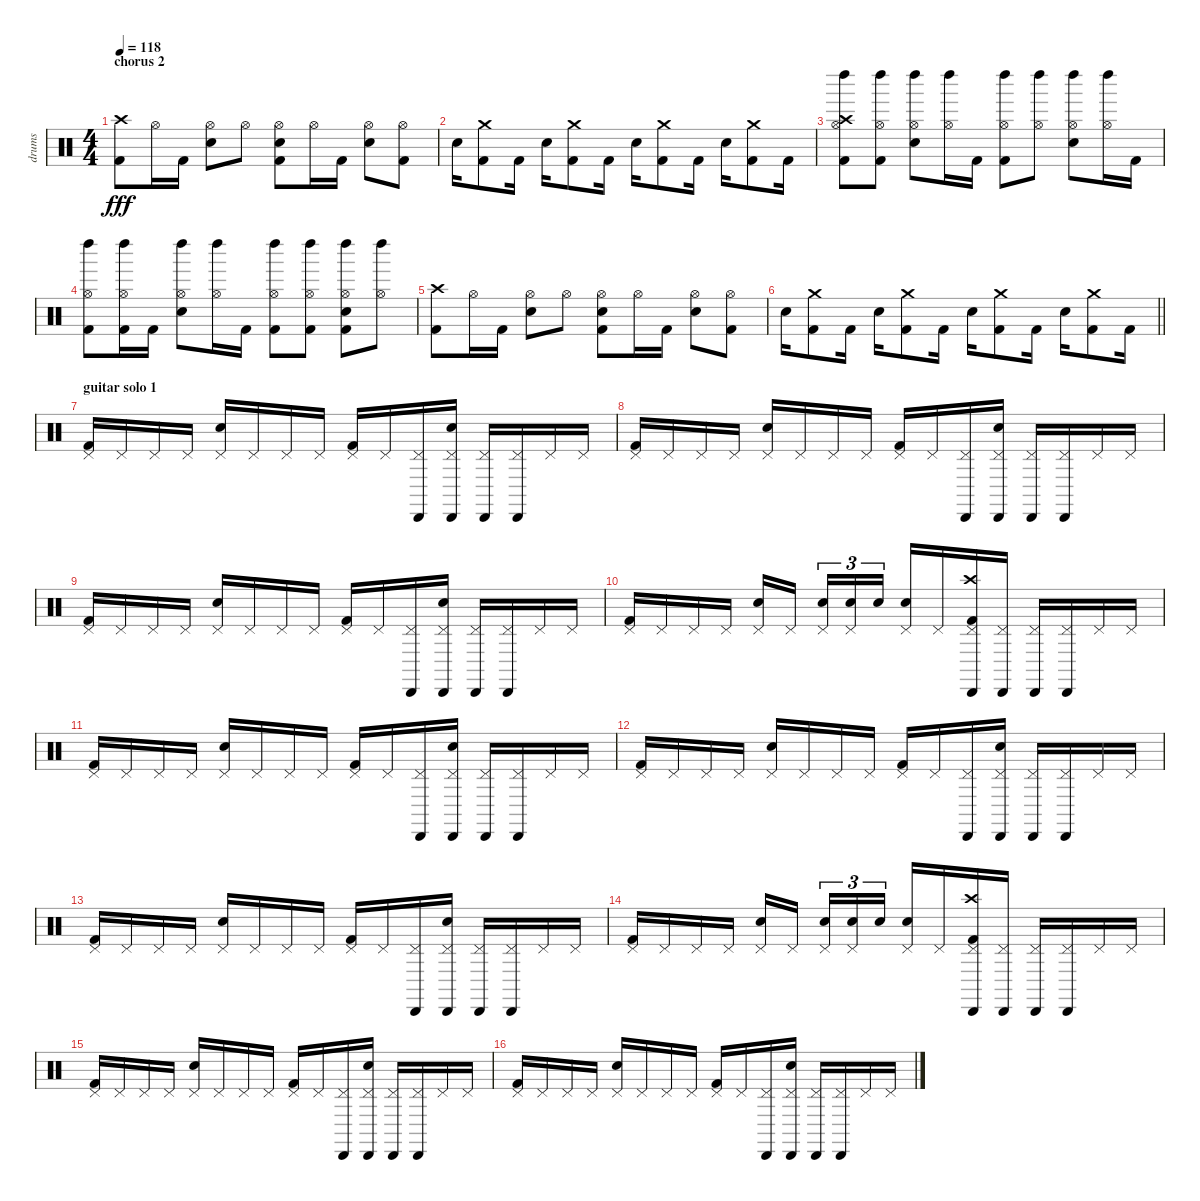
\track ("drums" "drums") {instrument percussion}
\staff {score}
\articulation defaults
\ts (4 4)
\section ("" "chorus 2")
\tempo 118
\clef neutral
\ks c
("Crash high (hit)" "Kick (hit) 2").8{dy fff} "Hi-Hat (open)".16 "Kick (hit) 2".16 ("Hi-Hat (open)" "Electric Snare (hit)").8 "Hi-Hat (open)".8 ("Kick (hit) 2" "Hi-Hat (open)" "Electric Snare (hit)").8 "Hi-Hat (open)".16 "Kick (hit) 2".16 ("Hi-Hat (open)" "Electric Snare (hit)").8 ("Hi-Hat (open)" "Kick (hit) 2").8 |
"Electric Snare (hit)".16 ("Crash medium (hit)" "Kick (hit) 2").8 "Kick (hit) 2".16 "Electric Snare (hit)".16 ("Kick (hit) 2" "Crash medium (hit)").8 "Kick (hit) 2".16 "Electric Snare (hit)".16 ("Kick (hit) 2" "Crash medium (hit)").8 "Kick (hit) 2".16 "Electric Snare (hit)".16 ("Kick (hit) 2" "Crash medium (hit)").8 "Kick (hit) 2".16 |
("Left Maraca (hit)" "Hi-Hat (open)" "Crash high (hit)" "Kick (hit) 2").8 ("Left Maraca (hit)" "Kick (hit) 2" "Hi-Hat (open)").8 ("Electric Snare (hit)" "Left Maraca (hit)" "Hi-Hat (open)").8 ("Hi-Hat (open)" "Left Maraca (hit)").16 "Kick (hit) 2".16 ("Hi-Hat (open)" "Kick (hit) 2" "Left Maraca (hit)").8 ("Left Maraca (hit)" "Hi-Hat (open)").8 ("Hi-Hat (open)" "Left Maraca (hit)" "Electric Snare (hit)").8 ("Left Maraca (hit)" "Hi-Hat (open)").16 "Kick (hit) 2".16 |
("Hi-Hat (open)" "Kick (hit) 2" "Left Maraca (hit)").8 ("Kick (hit) 2" "Hi-Hat (open)" "Left Maraca (hit)").16 "Kick (hit) 2".16 ("Left Maraca (hit)" "Electric Snare (hit)" "Hi-Hat (open)").8 ("Hi-Hat (open)" "Left Maraca (hit)").16 "Kick (hit) 2".16 ("Left Maraca (hit)" "Hi-Hat (open)" "Kick (hit) 2").8 ("Hi-Hat (open)" "Left Maraca (hit)" "Kick (hit) 2").8 ("Electric Snare (hit)" "Kick (hit) 2" "Left Maraca (hit)" "Hi-Hat (open)").8 ("Hi-Hat (open)" "Left Maraca (hit)").8 |
("Kick (hit) 2" "Crash high (hit)").8 "Hi-Hat (open)".16 "Kick (hit) 2".16 ("Hi-Hat (open)" "Electric Snare (hit)").8 "Hi-Hat (open)".8 ("Electric Snare (hit)" "Hi-Hat (open)" "Kick (hit) 2").8 "Hi-Hat (open)".16 "Kick (hit) 2".16 ("Electric Snare (hit)" "Hi-Hat (open)").8 ("Kick (hit) 2" "Hi-Hat (open)").8 |
\barLineRight lightlight "Electric Snare (hit)".16
("Crash medium (hit)" "Kick (hit) 2").8 "Kick (hit) 2".16 "Electric Snare (hit)".16 ("Kick (hit) 2" "Crash medium (hit)").8 "Kick (hit) 2".16 "Electric Snare (hit)".16 ("Kick (hit) 2" "Crash medium (hit)").8 "Kick (hit) 2".16 "Electric Snare (hit)".16 ("Kick (hit) 2" "Crash medium (hit)").8 "Kick (hit) 2".16 |
\section ("" "guitar solo 1")
("Pedal Hi-Hat (hit)" "Kick (hit) 2").16 "Pedal Hi-Hat (hit)".16 "Pedal Hi-Hat (hit)".16 "Pedal Hi-Hat (hit)".16 ("Electric Snare (hit)" "Pedal Hi-Hat (hit)").16 "Pedal Hi-Hat (hit)".16 "Pedal Hi-Hat (hit)".16 "Pedal Hi-Hat (hit)".16 ("Pedal Hi-Hat (hit)" "Kick (hit) 2").16 "Pedal Hi-Hat (hit)".16 ("Cabasa (hit)" "Pedal Hi-Hat (hit)").16 ("Electric Snare (hit)" "Cabasa (hit)" "Pedal Hi-Hat (hit)").16 ("Pedal Hi-Hat (hit)" "Cabasa (hit)").16 ("Cabasa (hit)" "Pedal Hi-Hat (hit)").16 "Pedal Hi-Hat (hit)".16 "Pedal Hi-Hat (hit)".16 |
("Pedal Hi-Hat (hit)" "Kick (hit) 2").16 "Pedal Hi-Hat (hit)".16 "Pedal Hi-Hat (hit)".16 "Pedal Hi-Hat (hit)".16 ("Pedal Hi-Hat (hit)" "Electric Snare (hit)").16 "Pedal Hi-Hat (hit)".16 "Pedal Hi-Hat (hit)".16 "Pedal Hi-Hat (hit)".16 ("Pedal Hi-Hat (hit)" "Kick (hit) 2").16 "Pedal Hi-Hat (hit)".16 ("Pedal Hi-Hat (hit)" "Cabasa (hit)").16 ("Pedal Hi-Hat (hit)" "Electric Snare (hit)" "Cabasa (hit)").16 ("Cabasa (hit)" "Pedal Hi-Hat (hit)").16 ("Cabasa (hit)" "Pedal Hi-Hat (hit)").16 "Pedal Hi-Hat (hit)".16 "Pedal Hi-Hat (hit)".16 |
("Pedal Hi-Hat (hit)" "Kick (hit) 2").16 "Pedal Hi-Hat (hit)".16 "Pedal Hi-Hat (hit)".16 "Pedal Hi-Hat (hit)".16 ("Pedal Hi-Hat (hit)" "Electric Snare (hit)").16 "Pedal Hi-Hat (hit)".16 "Pedal Hi-Hat (hit)".16 "Pedal Hi-Hat (hit)".16 ("Pedal Hi-Hat (hit)" "Kick (hit) 2").16 "Pedal Hi-Hat (hit)".16 ("Pedal Hi-Hat (hit)" "Cabasa (hit)").16 ("Pedal Hi-Hat (hit)" "Electric Snare (hit)" "Cabasa (hit)").16 ("Cabasa (hit)" "Pedal Hi-Hat (hit)").16 ("Cabasa (hit)" "Pedal Hi-Hat (hit)").16 "Pedal Hi-Hat (hit)".16 "Pedal Hi-Hat (hit)".16 |
("Pedal Hi-Hat (hit)" "Kick (hit) 2").16 "Pedal Hi-Hat (hit)".16 "Pedal Hi-Hat (hit)".16 "Pedal Hi-Hat (hit)".16 ("Pedal Hi-Hat (hit)" "Electric Snare (hit)").16 "Pedal Hi-Hat (hit)".16 ("Electric Snare (hit)" "Pedal Hi-Hat (hit)").16{tu (3 2)} ("Electric Snare (hit)" "Pedal Hi-Hat (hit)").16{tu (3 2)} "Electric Snare (hit)".16{tu (3 2)} ("Pedal Hi-Hat (hit)" "Electric Snare (hit)").16 "Pedal Hi-Hat (hit)".16 ("Kick (hit) 2" "Pedal Hi-Hat (hit)" "Cabasa (hit)" "Crash high (hit)").16 ("Pedal Hi-Hat (hit)" "Cabasa (hit)").16 ("Cabasa (hit)" "Pedal Hi-Hat (hit)").16 ("Cabasa (hit)" "Pedal Hi-Hat (hit)").16 "Pedal Hi-Hat (hit)".16 "Pedal Hi-Hat (hit)".16 |
("Pedal Hi-Hat (hit)" "Kick (hit) 2").16 "Pedal Hi-Hat (hit)".16 "Pedal Hi-Hat (hit)".16 "Pedal Hi-Hat (hit)".16 ("Pedal Hi-Hat (hit)" "Electric Snare (hit)").16 "Pedal Hi-Hat (hit)".16 "Pedal Hi-Hat (hit)".16 "Pedal Hi-Hat (hit)".16 ("Pedal Hi-Hat (hit)" "Kick (hit) 2").16 "Pedal Hi-Hat (hit)".16 ("Pedal Hi-Hat (hit)" "Cabasa (hit)").16 ("Pedal Hi-Hat (hit)" "Electric Snare (hit)" "Cabasa (hit)").16 ("Cabasa (hit)" "Pedal Hi-Hat (hit)").16 ("Cabasa (hit)" "Pedal Hi-Hat (hit)").16 "Pedal Hi-Hat (hit)".16 "Pedal Hi-Hat (hit)".16 |
("Pedal Hi-Hat (hit)" "Kick (hit) 2").16 "Pedal Hi-Hat (hit)".16 "Pedal Hi-Hat (hit)".16 "Pedal Hi-Hat (hit)".16 ("Pedal Hi-Hat (hit)" "Electric Snare (hit)").16 "Pedal Hi-Hat (hit)".16 "Pedal Hi-Hat (hit)".16 "Pedal Hi-Hat (hit)".16 ("Pedal Hi-Hat (hit)" "Kick (hit) 2").16 "Pedal Hi-Hat (hit)".16 ("Pedal Hi-Hat (hit)" "Cabasa (hit)").16 ("Pedal Hi-Hat (hit)" "Electric Snare (hit)" "Cabasa (hit)").16 ("Cabasa (hit)" "Pedal Hi-Hat (hit)").16 ("Cabasa (hit)" "Pedal Hi-Hat (hit)").16 "Pedal Hi-Hat (hit)".16 "Pedal Hi-Hat (hit)".16 |
("Pedal Hi-Hat (hit)" "Kick (hit) 2").16 "Pedal Hi-Hat (hit)".16 "Pedal Hi-Hat (hit)".16 "Pedal Hi-Hat (hit)".16 ("Pedal Hi-Hat (hit)" "Electric Snare (hit)").16 "Pedal Hi-Hat (hit)".16 "Pedal Hi-Hat (hit)".16 "Pedal Hi-Hat (hit)".16 ("Pedal Hi-Hat (hit)" "Kick (hit) 2").16 "Pedal Hi-Hat (hit)".16 ("Pedal Hi-Hat (hit)" "Cabasa (hit)").16 ("Pedal Hi-Hat (hit)" "Electric Snare (hit)" "Cabasa (hit)").16 ("Cabasa (hit)" "Pedal Hi-Hat (hit)").16 ("Cabasa (hit)" "Pedal Hi-Hat (hit)").16 "Pedal Hi-Hat (hit)".16 "Pedal Hi-Hat (hit)".16 |
("Pedal Hi-Hat (hit)" "Kick (hit) 2").16 "Pedal Hi-Hat (hit)".16 "Pedal Hi-Hat (hit)".16 "Pedal Hi-Hat (hit)".16 ("Pedal Hi-Hat (hit)" "Electric Snare (hit)").16 "Pedal Hi-Hat (hit)".16 ("Electric Snare (hit)" "Pedal Hi-Hat (hit)").16{tu (3 2)} ("Electric Snare (hit)" "Pedal Hi-Hat (hit)").16{tu (3 2)} "Electric Snare (hit)".16{tu (3 2)} ("Pedal Hi-Hat (hit)" "Electric Snare (hit)").16 "Pedal Hi-Hat (hit)".16 ("Kick (hit) 2" "Pedal Hi-Hat (hit)" "Cabasa (hit)" "Crash high (hit)").16 ("Pedal Hi-Hat (hit)" "Cabasa (hit)").16 ("Cabasa (hit)" "Pedal Hi-Hat (hit)").16 ("Cabasa (hit)" "Pedal Hi-Hat (hit)").16 "Pedal Hi-Hat (hit)".16 "Pedal Hi-Hat (hit)".16 |
("Pedal Hi-Hat (hit)" "Kick (hit) 2").16 "Pedal Hi-Hat (hit)".16 "Pedal Hi-Hat (hit)".16 "Pedal Hi-Hat (hit)".16 ("Pedal Hi-Hat (hit)" "Electric Snare (hit)").16 "Pedal Hi-Hat (hit)".16 "Pedal Hi-Hat (hit)".16 "Pedal Hi-Hat (hit)".16 ("Pedal Hi-Hat (hit)" "Kick (hit) 2").16 "Pedal Hi-Hat (hit)".16 ("Pedal Hi-Hat (hit)" "Cabasa (hit)").16 ("Pedal Hi-Hat (hit)" "Electric Snare (hit)" "Cabasa (hit)").16 ("Cabasa (hit)" "Pedal Hi-Hat (hit)").16 ("Cabasa (hit)" "Pedal Hi-Hat (hit)").16 "Pedal Hi-Hat (hit)".16 "Pedal Hi-Hat (hit)".16 |
("Pedal Hi-Hat (hit)" "Kick (hit) 2").16 "Pedal Hi-Hat (hit)".16 "Pedal Hi-Hat (hit)".16 "Pedal Hi-Hat (hit)".16 ("Pedal Hi-Hat (hit)" "Electric Snare (hit)").16 "Pedal Hi-Hat (hit)".16 "Pedal Hi-Hat (hit)".16 "Pedal Hi-Hat (hit)".16 ("Pedal Hi-Hat (hit)" "Kick (hit) 2").16 "Pedal Hi-Hat (hit)".16 ("Pedal Hi-Hat (hit)" "Cabasa (hit)").16 ("Pedal Hi-Hat (hit)" "Electric Snare (hit)" "Cabasa (hit)").16 ("Cabasa (hit)" "Pedal Hi-Hat (hit)").16 ("Cabasa (hit)" "Pedal Hi-Hat (hit)").16 "Pedal Hi-Hat (hit)".16 "Pedal Hi-Hat (hit)".16
